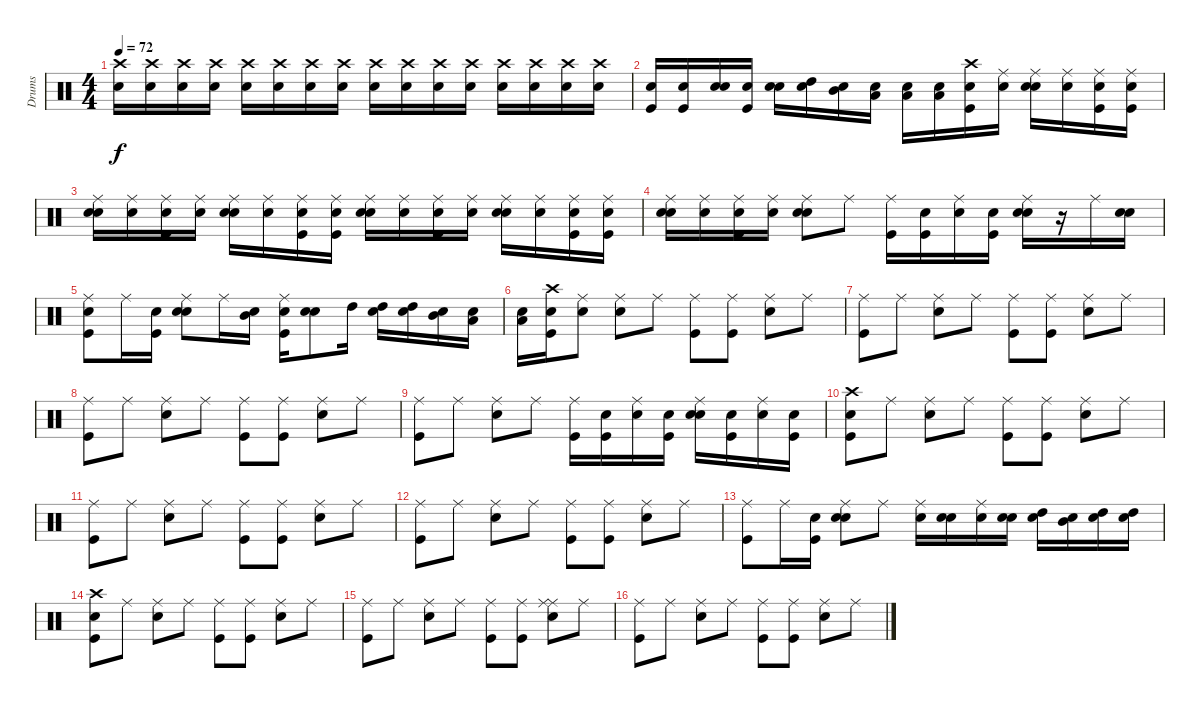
\track ("Drums" "Drums") {instrument percussion}
\staff {score}
\articulation defaults
\ts (4 4)
\tempo 72
\clef neutral
\ks c
("Snare (hit)" "Crash high (hit)").16{dy f} ("Snare (hit)" "Crash high (hit)").16 ("Snare (hit)" "Crash high (hit)").16 ("Snare (hit)" "Crash high (hit)").16 ("Snare (hit)" "Crash high (hit)").16 ("Snare (hit)" "Crash high (hit)").16 ("Snare (hit)" "Crash high (hit)").16 ("Snare (hit)" "Crash high (hit)").16 ("Snare (hit)" "Crash high (hit)").16 ("Snare (hit)" "Crash high (hit)").16 ("Snare (hit)" "Crash high (hit)").16 ("Snare (hit)" "Crash high (hit)").16 ("Snare (hit)" "Crash high (hit)").16 ("Snare (hit)" "Crash high (hit)").16 ("Snare (hit)" "Crash high (hit)").16 ("Snare (hit)" "Crash high (hit)").16 |
("Snare (hit)" "Kick (hit)").16 ("Snare (hit)" "Kick (hit)").16 ("Snare (hit)" "Snare (hit) 2").16 ("Snare (hit)" "Kick (hit)").16 ("Snare (hit)" "Snare (hit) 2").16 ("Snare (hit)" "High Tom (hit)").16 ("Snare (hit)" "Mid Tom (hit)").16 ("Snare (hit)" "Low Tom (hit)").16 ("Snare (hit)" "Low Tom (hit)").16 ("Snare (hit)" "Low Tom (hit)").16 ("Snare (hit)" "Crash high (hit)" "Kick (hit)").16 ("Snare (hit)" "Ride (middle)").16 ("Snare (hit)" "Ride (middle)" "Snare (hit) 2").16 ("Snare (hit)" "Ride (middle)").16 ("Snare (hit)" "Ride (middle)" "Kick (hit)").16 ("Snare (hit)" "Ride (middle)" "Kick (hit)").16 |
("Snare (hit)" "Ride (middle)" "Snare (hit) 2").16 ("Snare (hit)" "Ride (middle)").16 ("Snare (hit)" "Ride (middle)" "Kick (hit)").16 ("Snare (hit)" "Ride (middle)").16 ("Snare (hit)" "Ride (middle)" "Snare (hit) 2").16 ("Snare (hit)" "Ride (middle)").16 ("Snare (hit)" "Ride (middle)" "Kick (hit)").16 ("Snare (hit)" "Ride (middle)" "Kick (hit)").16 ("Snare (hit)" "Ride (middle)" "Snare (hit) 2").16 ("Snare (hit)" "Ride (middle)").16 ("Snare (hit)" "Ride (middle)" "Kick (hit)").16 ("Snare (hit)" "Ride (middle)").16 ("Snare (hit)" "Ride (middle)" "Snare (hit) 2").16 ("Snare (hit)" "Ride (middle)").16 ("Snare (hit)" "Ride (middle)" "Kick (hit)").16 ("Snare (hit)" "Ride (middle)" "Kick (hit)").16 |
("Snare (hit)" "Ride (middle)" "Snare (hit) 2").16 ("Snare (hit)" "Ride (middle)").16 ("Snare (hit)" "Ride (middle)" "Kick (hit)").16 ("Snare (hit)" "Ride (middle)").16 ("Snare (hit)" "Ride (middle)" "Snare (hit) 2").8 "Ride (middle)".8 ("Ride (middle)" "Kick (hit)").16 ("Snare (hit)" "Kick (hit)").16 ("Snare (hit)" "Ride (middle)").16 ("Snare (hit)" "Kick (hit)").16 ("Snare (hit)" "Ride (middle)" "Snare (hit) 2").16 r.16 "Ride (middle)".16 ("Snare (hit)" "Snare (hit) 2").16 |
("Snare (hit)" "Ride (middle)" "Kick (hit)").8 "Ride (middle)".16 ("Snare (hit)" "Kick (hit)").16 ("Snare (hit)" "Ride (middle)" "Snare (hit) 2").8 "Ride (middle)".16 ("Snare (hit)" "Mid Tom (hit)").16 ("Snare (hit)" "Ride (middle)" "Kick (hit)").16 ("Snare (hit)" "Snare (hit) 2").8 "High Tom (hit)".16 ("Snare (hit)" "High Tom (hit)").16 ("Snare (hit)" "High Tom (hit)").16 ("Snare (hit)" "Mid Tom (hit)").16 ("Snare (hit)" "Low Tom (hit)").16 |
("Snare (hit)" "Low Tom (hit)").16 ("Snare (hit)" "Crash high (hit)" "Kick (hit)").16 ("Snare (hit)" "Ride (middle)").8 ("Ride (middle)" "Snare (hit) 2").8 "Ride (middle)".8 ("Ride (middle)" "Kick (hit)").8 ("Ride (middle)" "Kick (hit)").8 ("Ride (middle)" "Snare (hit) 2").8 "Ride (middle)".8 |
("Ride (middle)" "Kick (hit)").8 "Ride (middle)".8 ("Ride (middle)" "Snare (hit) 2").8 "Ride (middle)".8 ("Ride (middle)" "Kick (hit)").8 ("Ride (middle)" "Kick (hit)").8 ("Ride (middle)" "Snare (hit) 2").8 "Ride (middle)".8 |
("Ride (middle)" "Kick (hit)").8 "Ride (middle)".8 ("Ride (middle)" "Snare (hit) 2").8 "Ride (middle)".8 ("Ride (middle)" "Kick (hit)").8 ("Ride (middle)" "Kick (hit)").8 ("Ride (middle)" "Snare (hit) 2").8 "Ride (middle)".8 |
("Ride (middle)" "Kick (hit)").8 "Ride (middle)".8 ("Ride (middle)" "Snare (hit) 2").8 "Ride (middle)".8 ("Ride (middle)" "Kick (hit)").16 ("Snare (hit)" "Kick (hit)").16 ("Snare (hit)" "Ride (middle)").16 ("Snare (hit)" "Kick (hit)").16 ("Snare (hit)" "Ride (middle)" "Snare (hit) 2").16 ("Snare (hit)" "Kick (hit)").16 ("Snare (hit)" "Ride (middle)").16 ("Snare (hit)" "Kick (hit)").16 |
("Snare (hit)" "Crash high (hit)" "Kick (hit)").8 "Ride (middle)".8 ("Ride (middle)" "Snare (hit) 2").8 "Ride (middle)".8 ("Ride (middle)" "Kick (hit)").8 ("Ride (middle)" "Kick (hit)").8 ("Ride (middle)" "Snare (hit) 2").8 "Ride (middle)".8 |
("Ride (middle)" "Kick (hit)").8 "Ride (middle)".8 ("Ride (middle)" "Snare (hit) 2").8 "Ride (middle)".8 ("Ride (middle)" "Kick (hit)").8 ("Ride (middle)" "Kick (hit)").8 ("Ride (middle)" "Snare (hit) 2").8 "Ride (middle)".8 |
("Ride (middle)" "Kick (hit)").8 "Ride (middle)".8 ("Ride (middle)" "Snare (hit) 2").8 "Ride (middle)".8 ("Ride (middle)" "Kick (hit)").8 ("Ride (middle)" "Kick (hit)").8 ("Ride (middle)" "Snare (hit) 2").8 "Ride (middle)".8 |
("Ride (middle)" "Kick (hit)").8 "Ride (middle)".16 ("Snare (hit)" "Kick (hit)").16 ("Snare (hit)" "Ride (middle)" "Snare (hit) 2").8 "Ride (middle)".8 ("Ride (middle)" "Snare (hit) 2").16 ("Snare (hit)" "Snare (hit) 2").16 ("Snare (hit)" "Ride (middle)").16 ("Snare (hit)" "Snare (hit) 2").16 ("Snare (hit)" "High Tom (hit)").16 ("Snare (hit)" "Mid Tom (hit)").16 ("Snare (hit)" "High Tom (hit)").16 ("Snare (hit)" "High Tom (hit)").16 |
("Snare (hit)" "Crash high (hit)" "Kick (hit)").8 "Ride (middle)".8 ("Ride (middle)" "Snare (hit) 2").8 "Ride (middle)".8 ("Ride (middle)" "Kick (hit)").8 ("Ride (middle)" "Kick (hit)").8 ("Ride (middle)" "Snare (hit) 2").8 "Ride (middle)".8 |
("Ride (middle)" "Kick (hit)").8 "Ride (middle)".8 ("Ride (middle)" "Snare (hit) 2").8 "Ride (middle)".8 ("Ride (middle)" "Kick (hit)").8 ("Ride (middle)" "Kick (hit)").8 ("Ride (middle)" "Ride (middle)" "Snare (hit) 2").8 "Ride (middle)".8 |
("Ride (middle)" "Kick (hit)").8 "Ride (middle)".8 ("Ride (middle)" "Snare (hit) 2").8 "Ride (middle)".8 ("Ride (middle)" "Kick (hit)").8 ("Ride (middle)" "Kick (hit)").8 ("Ride (middle)" "Snare (hit) 2").8 "Ride (middle)".8
